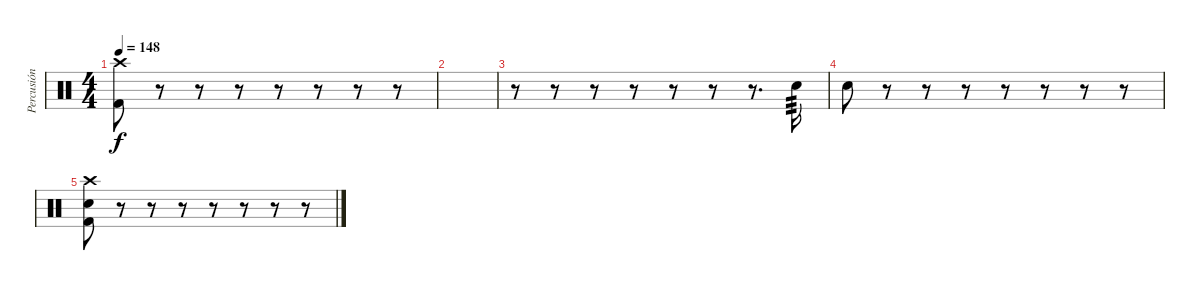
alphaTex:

\track ("Percusión" "Percusión") {instrument percussion}
\staff {score}
\articulation defaults
\ts (4 4)
\tempo 148
\clef neutral
\ks c
("Crash high (hit)" "Kick (hit) 2").8{dy f} r.8 r.8 r.8 r.8 r.8 r.8 r.8 |
|
r.8 r.8 r.8 r.8 r.8 r.8 r.8{d} "Electric Snare (hit)".16{tp 3} |
"Electric Snare (hit)".8 r.8 r.8 r.8 r.8 r.8 r.8 r.8 |
("Crash high (hit)" "Electric Snare (hit)" "Kick (hit) 2").8 r.8 r.8 r.8 r.8 r.8 r.8 r.8
